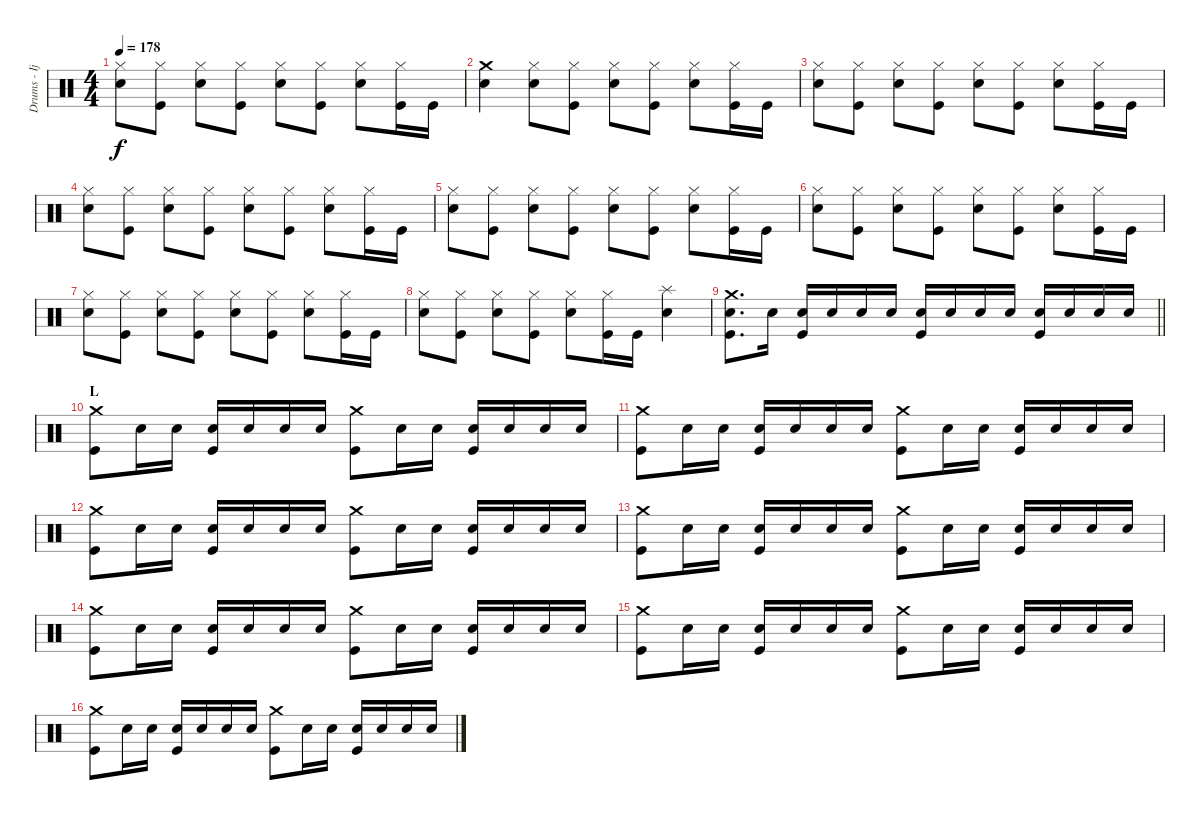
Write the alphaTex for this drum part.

\track ("Drums - Ijichi" "Drums - Ij") {instrument percussion}
\staff {score}
\articulation defaults
\ts (4 4)
\tempo 178
\clef neutral
\ks c
("Hi-Hat (closed)" "Electric Snare (hit)").8{dy f} ("Hi-Hat (closed)" "Kick (hit)").8 ("Hi-Hat (closed)" "Electric Snare (hit)").8 ("Hi-Hat (closed)" "Kick (hit)").8 ("Hi-Hat (closed)" "Electric Snare (hit)").8 ("Hi-Hat (closed)" "Kick (hit)").8 ("Hi-Hat (closed)" "Electric Snare (hit)").8 ("Hi-Hat (closed)" "Kick (hit)").16 "Kick (hit)".16 |
("Crash medium (hit)" "Electric Snare (hit)").4 ("Hi-Hat (closed)" "Electric Snare (hit)").8 ("Hi-Hat (closed)" "Kick (hit)").8 ("Hi-Hat (closed)" "Electric Snare (hit)").8 ("Hi-Hat (closed)" "Kick (hit)").8 ("Hi-Hat (closed)" "Electric Snare (hit)").8 ("Hi-Hat (closed)" "Kick (hit)").16 "Kick (hit)".16 |
("Hi-Hat (closed)" "Electric Snare (hit)").8 ("Hi-Hat (closed)" "Kick (hit)").8 ("Hi-Hat (closed)" "Electric Snare (hit)").8 ("Hi-Hat (closed)" "Kick (hit)").8 ("Hi-Hat (closed)" "Electric Snare (hit)").8 ("Hi-Hat (closed)" "Kick (hit)").8 ("Hi-Hat (closed)" "Electric Snare (hit)").8 ("Hi-Hat (closed)" "Kick (hit)").16 "Kick (hit)".16 |
("Hi-Hat (closed)" "Electric Snare (hit)").8 ("Hi-Hat (closed)" "Kick (hit)").8 ("Hi-Hat (closed)" "Electric Snare (hit)").8 ("Hi-Hat (closed)" "Kick (hit)").8 ("Hi-Hat (closed)" "Electric Snare (hit)").8 ("Hi-Hat (closed)" "Kick (hit)").8 ("Hi-Hat (closed)" "Electric Snare (hit)").8 ("Hi-Hat (closed)" "Kick (hit)").16 "Kick (hit)".16 |
("Hi-Hat (closed)" "Electric Snare (hit)").8 ("Hi-Hat (closed)" "Kick (hit)").8 ("Hi-Hat (closed)" "Electric Snare (hit)").8 ("Hi-Hat (closed)" "Kick (hit)").8 ("Hi-Hat (closed)" "Electric Snare (hit)").8 ("Hi-Hat (closed)" "Kick (hit)").8 ("Hi-Hat (closed)" "Electric Snare (hit)").8 ("Hi-Hat (closed)" "Kick (hit)").16 "Kick (hit)".16 |
("Hi-Hat (closed)" "Electric Snare (hit)").8 ("Hi-Hat (closed)" "Kick (hit)").8 ("Hi-Hat (closed)" "Electric Snare (hit)").8 ("Hi-Hat (closed)" "Kick (hit)").8 ("Hi-Hat (closed)" "Electric Snare (hit)").8 ("Hi-Hat (closed)" "Kick (hit)").8 ("Hi-Hat (closed)" "Electric Snare (hit)").8 ("Hi-Hat (closed)" "Kick (hit)").16 "Kick (hit)".16 |
("Hi-Hat (closed)" "Electric Snare (hit)").8 ("Hi-Hat (closed)" "Kick (hit)").8 ("Hi-Hat (closed)" "Electric Snare (hit)").8 ("Hi-Hat (closed)" "Kick (hit)").8 ("Hi-Hat (closed)" "Electric Snare (hit)").8 ("Hi-Hat (closed)" "Kick (hit)").8 ("Hi-Hat (closed)" "Electric Snare (hit)").8 ("Hi-Hat (closed)" "Kick (hit)").16 "Kick (hit)".16 |
("Hi-Hat (closed)" "Electric Snare (hit)").8 ("Hi-Hat (closed)" "Kick (hit)").8 ("Hi-Hat (closed)" "Electric Snare (hit)").8 ("Hi-Hat (closed)" "Kick (hit)").8 ("Hi-Hat (closed)" "Electric Snare (hit)").8 ("Hi-Hat (closed)" "Kick (hit)").16 "Kick (hit)".16 ("Splash (hit)" "Electric Snare (hit)").4 |
\barLineRight lightlight
("Crash medium (hit)" "Electric Snare (hit)" "Kick (hit)").8{d} "Electric Snare (hit)".16 ("Electric Snare (hit)" "Kick (hit)").16 "Electric Snare (hit)".16 "Electric Snare (hit)".16 "Electric Snare (hit)".16 ("Electric Snare (hit)" "Kick (hit)").16 "Electric Snare (hit)".16 "Electric Snare (hit)".16 "Electric Snare (hit)".16 ("Electric Snare (hit)" "Kick (hit)").16 "Electric Snare (hit)".16 "Electric Snare (hit)".16 "Electric Snare (hit)".16 |
\section ("" "L")
("Crash medium (hit)" "Kick (hit)").8 "Electric Snare (hit)".16 "Electric Snare (hit)".16 ("Electric Snare (hit)" "Kick (hit)").16 "Electric Snare (hit)".16 "Electric Snare (hit)".16 "Electric Snare (hit)".16 ("Crash medium (hit)" "Kick (hit)").8 "Electric Snare (hit)".16 "Electric Snare (hit)".16 ("Electric Snare (hit)" "Kick (hit)").16 "Electric Snare (hit)".16 "Electric Snare (hit)".16 "Electric Snare (hit)".16 |
("Crash medium (hit)" "Kick (hit)").8 "Electric Snare (hit)".16 "Electric Snare (hit)".16 ("Electric Snare (hit)" "Kick (hit)").16 "Electric Snare (hit)".16 "Electric Snare (hit)".16 "Electric Snare (hit)".16 ("Crash medium (hit)" "Kick (hit)").8 "Electric Snare (hit)".16 "Electric Snare (hit)".16 ("Electric Snare (hit)" "Kick (hit)").16 "Electric Snare (hit)".16 "Electric Snare (hit)".16 "Electric Snare (hit)".16 |
("Crash medium (hit)" "Kick (hit)").8 "Electric Snare (hit)".16 "Electric Snare (hit)".16 ("Electric Snare (hit)" "Kick (hit)").16 "Electric Snare (hit)".16 "Electric Snare (hit)".16 "Electric Snare (hit)".16 ("Crash medium (hit)" "Kick (hit)").8 "Electric Snare (hit)".16 "Electric Snare (hit)".16 ("Electric Snare (hit)" "Kick (hit)").16 "Electric Snare (hit)".16 "Electric Snare (hit)".16 "Electric Snare (hit)".16 |
("Crash medium (hit)" "Kick (hit)").8 "Electric Snare (hit)".16 "Electric Snare (hit)".16 ("Electric Snare (hit)" "Kick (hit)").16 "Electric Snare (hit)".16 "Electric Snare (hit)".16 "Electric Snare (hit)".16 ("Crash medium (hit)" "Kick (hit)").8 "Electric Snare (hit)".16 "Electric Snare (hit)".16 ("Electric Snare (hit)" "Kick (hit)").16 "Electric Snare (hit)".16 "Electric Snare (hit)".16 "Electric Snare (hit)".16 |
("Crash medium (hit)" "Kick (hit)").8 "Electric Snare (hit)".16 "Electric Snare (hit)".16 ("Electric Snare (hit)" "Kick (hit)").16 "Electric Snare (hit)".16 "Electric Snare (hit)".16 "Electric Snare (hit)".16 ("Crash medium (hit)" "Kick (hit)").8 "Electric Snare (hit)".16 "Electric Snare (hit)".16 ("Electric Snare (hit)" "Kick (hit)").16 "Electric Snare (hit)".16 "Electric Snare (hit)".16 "Electric Snare (hit)".16 |
("Crash medium (hit)" "Kick (hit)").8 "Electric Snare (hit)".16 "Electric Snare (hit)".16 ("Electric Snare (hit)" "Kick (hit)").16 "Electric Snare (hit)".16 "Electric Snare (hit)".16 "Electric Snare (hit)".16 ("Crash medium (hit)" "Kick (hit)").8 "Electric Snare (hit)".16 "Electric Snare (hit)".16 ("Electric Snare (hit)" "Kick (hit)").16 "Electric Snare (hit)".16 "Electric Snare (hit)".16 "Electric Snare (hit)".16 |
("Crash medium (hit)" "Kick (hit)").8 "Electric Snare (hit)".16 "Electric Snare (hit)".16 ("Electric Snare (hit)" "Kick (hit)").16 "Electric Snare (hit)".16 "Electric Snare (hit)".16 "Electric Snare (hit)".16 ("Crash medium (hit)" "Kick (hit)").8 "Electric Snare (hit)".16 "Electric Snare (hit)".16 ("Electric Snare (hit)" "Kick (hit)").16 "Electric Snare (hit)".16 "Electric Snare (hit)".16 "Electric Snare (hit)".16
